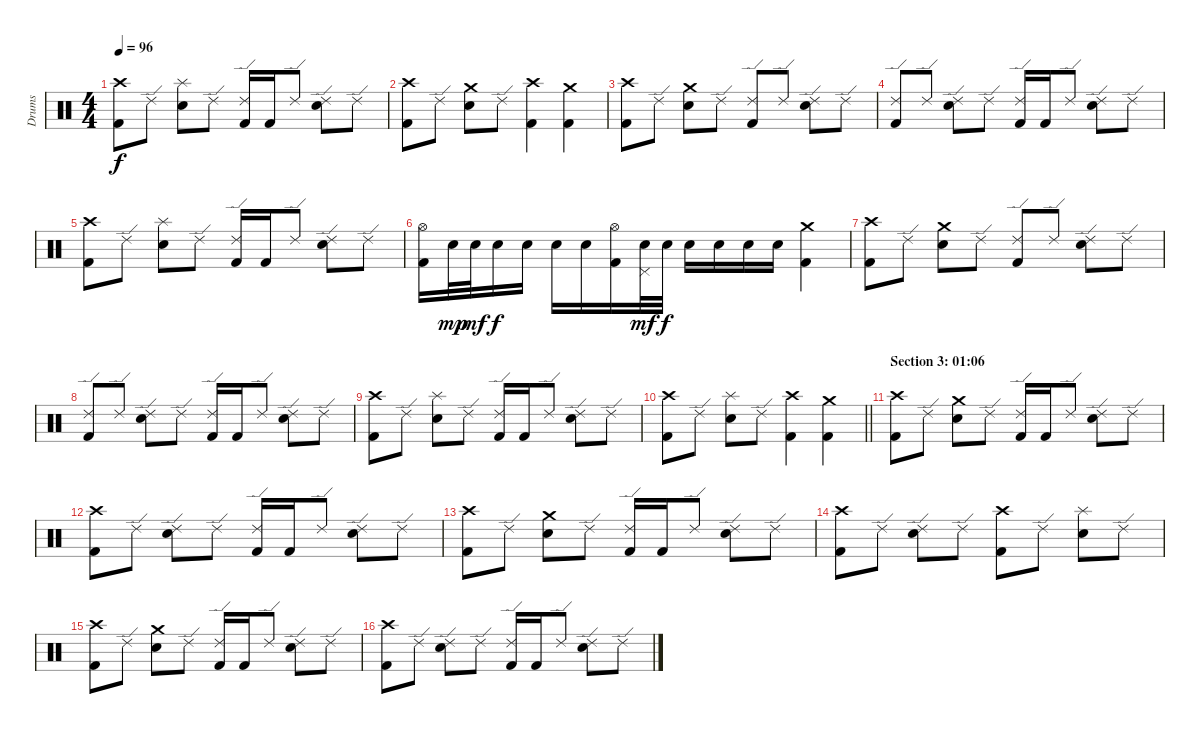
\track ("Drums" "Drums") {instrument percussion}
\staff {score}
\articulation defaults
\ts (4 4)
\tempo 96
\clef neutral
\ks c
("Crash high (hit)" "Kick (hit) 2").8{dy f} "Ride (edge) 2".8 ("Splash (hit)" "Electric Snare (hit)").8 "Ride (edge) 2".8 ("Ride (edge) 2" "Kick (hit) 2").16 "Kick (hit) 2".16 "Ride (edge) 2".8 ("Ride (edge) 2" "Electric Snare (hit)").8 "Ride (edge) 2".8 |
("Crash high (hit)" "Kick (hit) 2").8 "Ride (edge) 2".8 ("Crash medium (hit)" "Electric Snare (hit)").8 "Ride (edge) 2".8 ("Crash high (hit)" "Kick (hit) 2").4 ("Crash medium (hit)" "Kick (hit) 2").4 |
("Crash high (hit)" "Kick (hit) 2").8 "Ride (edge) 2".8 ("Crash medium (hit)" "Electric Snare (hit)").8 "Ride (edge) 2".8 ("Ride (edge) 2" "Kick (hit) 2").8 "Ride (edge) 2".8 ("Ride (edge) 2" "Electric Snare (hit)").8 "Ride (edge) 2".8 |
("Ride (edge) 2" "Kick (hit) 2").8 "Ride (edge) 2".8 ("Ride (edge) 2" "Electric Snare (hit)").8 "Ride (edge) 2".8 ("Ride (edge) 2" "Kick (hit) 2").16 "Kick (hit) 2".16 "Ride (edge) 2".8 ("Ride (edge) 2" "Electric Snare (hit)").8 "Ride (edge) 2".8 |
("Crash high (hit)" "Kick (hit) 2").8 "Ride (edge) 2".8 ("Splash (hit)" "Electric Snare (hit)").8 "Ride (edge) 2".8 ("Ride (edge) 2" "Kick (hit) 2").16 "Kick (hit) 2".16 "Ride (edge) 2".8 ("Ride (edge) 2" "Electric Snare (hit)").8 "Ride (edge) 2".8 |
("Hi-Hat (open)" "Kick (hit) 2").16 "Electric Snare (hit)".32{dy mp} "Electric Snare (hit)".32{dy mf} "Electric Snare (hit)".16{dy f} "Electric Snare (hit)".16 "Electric Snare (hit)".16 "Electric Snare (hit)".16 ("Hi-Hat (open)" "Kick (hit) 2").16 ("Pedal Hi-Hat (hit)" "Electric Snare (hit)").32{dy mf} "Electric Snare (hit)".32{dy f} "Electric Snare (hit)".16 "Electric Snare (hit)".16 "Electric Snare (hit)".16 "Electric Snare (hit)".16 ("Crash medium (hit)" "Kick (hit) 2").4 |
("Crash high (hit)" "Kick (hit) 2").8 "Ride (edge) 2".8 ("Crash medium (hit)" "Electric Snare (hit)").8 "Ride (edge) 2".8 ("Ride (edge) 2" "Kick (hit) 2").8 "Ride (edge) 2".8 ("Ride (edge) 2" "Electric Snare (hit)").8 "Ride (edge) 2".8 |
("Ride (edge) 2" "Kick (hit) 2").8 "Ride (edge) 2".8 ("Ride (edge) 2" "Electric Snare (hit)").8 "Ride (edge) 2".8 ("Ride (edge) 2" "Kick (hit) 2").16 "Kick (hit) 2".16 "Ride (edge) 2".8 ("Ride (edge) 2" "Electric Snare (hit)").8 "Ride (edge) 2".8 |
("Crash high (hit)" "Kick (hit) 2").8 "Ride (edge) 2".8 ("Splash (hit)" "Electric Snare (hit)").8 "Ride (edge) 2".8 ("Ride (edge) 2" "Kick (hit) 2").16 "Kick (hit) 2".16 "Ride (edge) 2".8 ("Ride (edge) 2" "Electric Snare (hit)").8 "Ride (edge) 2".8 |
\barLineRight lightlight
("Crash high (hit)" "Kick (hit) 2").8 "Ride (edge) 2".8 ("Splash (hit)" "Electric Snare (hit)").8 "Ride (edge) 2".8 ("Crash high (hit)" "Kick (hit) 2").4 ("Crash medium (hit)" "Kick (hit) 2").4 |
\section ("" "Section 3: 01:06")
("Crash high (hit)" "Kick (hit) 2").8 "Ride (edge) 2".8 ("Crash medium (hit)" "Electric Snare (hit)").8 "Ride (edge) 2".8 ("Ride (edge) 2" "Kick (hit) 2").16 "Kick (hit) 2".16 "Ride (edge) 2".8 ("Ride (edge) 2" "Electric Snare (hit)").8 "Ride (edge) 2".8 |
("Crash high (hit)" "Kick (hit) 2").8 "Ride (edge) 2".8 ("Ride (edge) 2" "Electric Snare (hit)").8 "Ride (edge) 2".8 ("Ride (edge) 2" "Kick (hit) 2").16 "Kick (hit) 2".16 "Ride (edge) 2".8 ("Ride (edge) 2" "Electric Snare (hit)").8 "Ride (edge) 2".8 |
("Crash high (hit)" "Kick (hit) 2").8 "Ride (edge) 2".8 ("Crash medium (hit)" "Electric Snare (hit)").8 "Ride (edge) 2".8 ("Ride (edge) 2" "Kick (hit) 2").16 "Kick (hit) 2".16 "Ride (edge) 2".8 ("Ride (edge) 2" "Electric Snare (hit)").8 "Ride (edge) 2".8 |
("Crash high (hit)" "Kick (hit) 2").8 "Ride (edge) 2".8 ("Ride (edge) 2" "Electric Snare (hit)").8 "Ride (edge) 2".8 ("Crash high (hit)" "Kick (hit) 2").8 "Ride (edge) 2".8 ("Splash (hit)" "Electric Snare (hit)").8 "Ride (edge) 2".8 |
("Crash high (hit)" "Kick (hit) 2").8 "Ride (edge) 2".8 ("Crash medium (hit)" "Electric Snare (hit)").8 "Ride (edge) 2".8 ("Ride (edge) 2" "Kick (hit) 2").16 "Kick (hit) 2".16 "Ride (edge) 2".8 ("Ride (edge) 2" "Electric Snare (hit)").8 "Ride (edge) 2".8 |
("Crash high (hit)" "Kick (hit) 2").8 "Ride (edge) 2".8 ("Ride (edge) 2" "Electric Snare (hit)").8 "Ride (edge) 2".8 ("Ride (edge) 2" "Kick (hit) 2").16 "Kick (hit) 2".16 "Ride (edge) 2".8 ("Ride (edge) 2" "Electric Snare (hit)").8 "Ride (edge) 2".8
